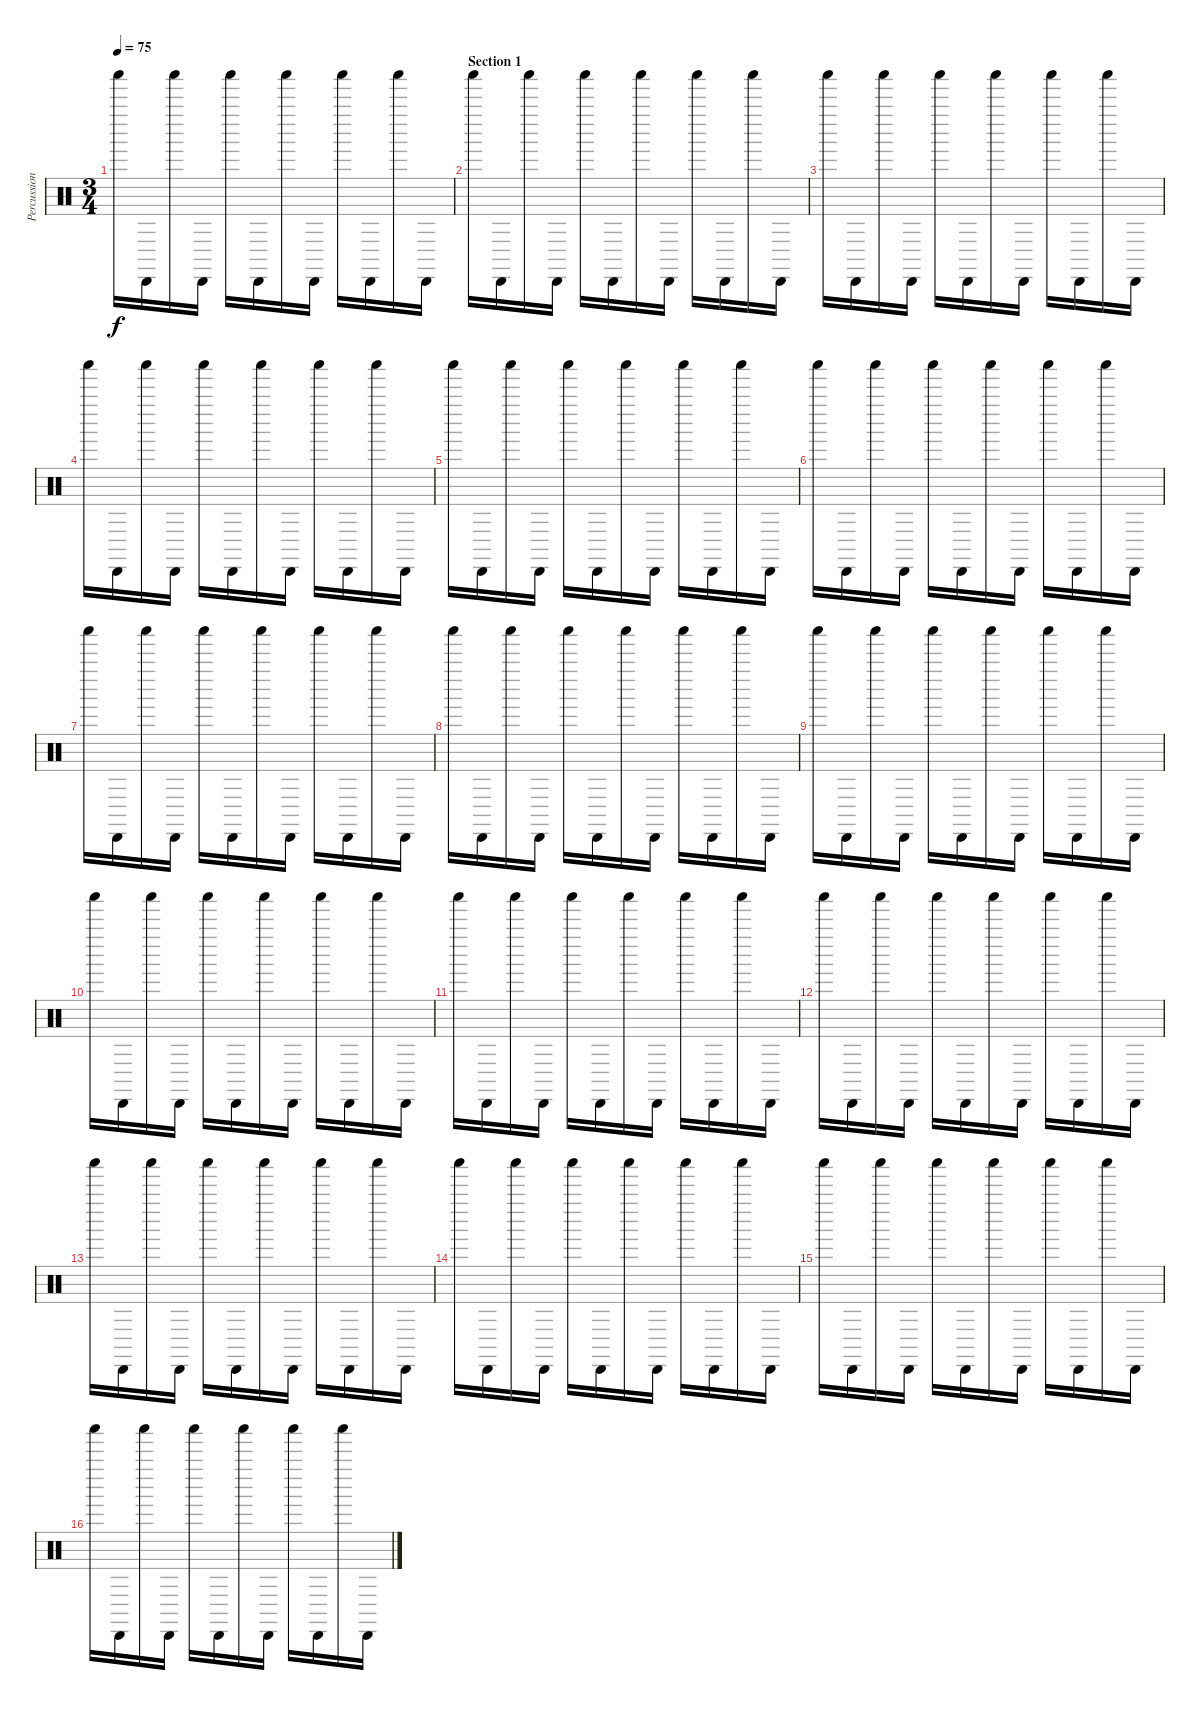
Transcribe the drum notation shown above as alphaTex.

\track ("Percussions" "Percussion") {instrument percussion}
\staff {score}
\articulation defaults
\ts (3 4)
\tempo 75
\clef neutral
\ks c "Shaker (hit)".16{dy f} "Cabasa (hit)".16 "Shaker (hit)".16 "Cabasa (hit)".16 "Shaker (hit)".16 "Cabasa (hit)".16 "Shaker (hit)".16 "Cabasa (hit)".16 "Shaker (hit)".16 "Cabasa (hit)".16 "Shaker (hit)".16 "Cabasa (hit)".16
|
\section ("" "Section 1")
"Shaker (hit)".16 "Cabasa (hit)".16 "Shaker (hit)".16 "Cabasa (hit)".16 "Shaker (hit)".16 "Cabasa (hit)".16 "Shaker (hit)".16 "Cabasa (hit)".16 "Shaker (hit)".16 "Cabasa (hit)".16 "Shaker (hit)".16 "Cabasa (hit)".16 |
"Shaker (hit)".16 "Cabasa (hit)".16 "Shaker (hit)".16 "Cabasa (hit)".16 "Shaker (hit)".16 "Cabasa (hit)".16 "Shaker (hit)".16 "Cabasa (hit)".16 "Shaker (hit)".16 "Cabasa (hit)".16 "Shaker (hit)".16 "Cabasa (hit)".16 |
"Shaker (hit)".16 "Cabasa (hit)".16 "Shaker (hit)".16 "Cabasa (hit)".16 "Shaker (hit)".16 "Cabasa (hit)".16 "Shaker (hit)".16 "Cabasa (hit)".16 "Shaker (hit)".16 "Cabasa (hit)".16 "Shaker (hit)".16 "Cabasa (hit)".16 |
"Shaker (hit)".16 "Cabasa (hit)".16 "Shaker (hit)".16 "Cabasa (hit)".16 "Shaker (hit)".16 "Cabasa (hit)".16 "Shaker (hit)".16 "Cabasa (hit)".16 "Shaker (hit)".16 "Cabasa (hit)".16 "Shaker (hit)".16 "Cabasa (hit)".16 |
"Shaker (hit)".16 "Cabasa (hit)".16 "Shaker (hit)".16 "Cabasa (hit)".16 "Shaker (hit)".16 "Cabasa (hit)".16 "Shaker (hit)".16 "Cabasa (hit)".16 "Shaker (hit)".16 "Cabasa (hit)".16 "Shaker (hit)".16 "Cabasa (hit)".16 |
"Shaker (hit)".16 "Cabasa (hit)".16 "Shaker (hit)".16 "Cabasa (hit)".16 "Shaker (hit)".16 "Cabasa (hit)".16 "Shaker (hit)".16 "Cabasa (hit)".16 "Shaker (hit)".16 "Cabasa (hit)".16 "Shaker (hit)".16 "Cabasa (hit)".16 |
"Shaker (hit)".16 "Cabasa (hit)".16 "Shaker (hit)".16 "Cabasa (hit)".16 "Shaker (hit)".16 "Cabasa (hit)".16 "Shaker (hit)".16 "Cabasa (hit)".16 "Shaker (hit)".16 "Cabasa (hit)".16 "Shaker (hit)".16 "Cabasa (hit)".16 |
"Shaker (hit)".16 "Cabasa (hit)".16 "Shaker (hit)".16 "Cabasa (hit)".16 "Shaker (hit)".16 "Cabasa (hit)".16 "Shaker (hit)".16 "Cabasa (hit)".16 "Shaker (hit)".16 "Cabasa (hit)".16 "Shaker (hit)".16 "Cabasa (hit)".16 |
"Shaker (hit)".16 "Cabasa (hit)".16 "Shaker (hit)".16 "Cabasa (hit)".16 "Shaker (hit)".16 "Cabasa (hit)".16 "Shaker (hit)".16 "Cabasa (hit)".16 "Shaker (hit)".16 "Cabasa (hit)".16 "Shaker (hit)".16 "Cabasa (hit)".16 |
"Shaker (hit)".16 "Cabasa (hit)".16 "Shaker (hit)".16 "Cabasa (hit)".16 "Shaker (hit)".16 "Cabasa (hit)".16 "Shaker (hit)".16 "Cabasa (hit)".16 "Shaker (hit)".16 "Cabasa (hit)".16 "Shaker (hit)".16 "Cabasa (hit)".16 |
"Shaker (hit)".16 "Cabasa (hit)".16 "Shaker (hit)".16 "Cabasa (hit)".16 "Shaker (hit)".16 "Cabasa (hit)".16 "Shaker (hit)".16 "Cabasa (hit)".16 "Shaker (hit)".16 "Cabasa (hit)".16 "Shaker (hit)".16 "Cabasa (hit)".16 |
"Shaker (hit)".16 "Cabasa (hit)".16 "Shaker (hit)".16 "Cabasa (hit)".16 "Shaker (hit)".16 "Cabasa (hit)".16 "Shaker (hit)".16 "Cabasa (hit)".16 "Shaker (hit)".16 "Cabasa (hit)".16 "Shaker (hit)".16 "Cabasa (hit)".16 |
"Shaker (hit)".16 "Cabasa (hit)".16 "Shaker (hit)".16 "Cabasa (hit)".16 "Shaker (hit)".16 "Cabasa (hit)".16 "Shaker (hit)".16 "Cabasa (hit)".16 "Shaker (hit)".16 "Cabasa (hit)".16 "Shaker (hit)".16 "Cabasa (hit)".16 |
"Shaker (hit)".16 "Cabasa (hit)".16 "Shaker (hit)".16 "Cabasa (hit)".16 "Shaker (hit)".16 "Cabasa (hit)".16 "Shaker (hit)".16 "Cabasa (hit)".16 "Shaker (hit)".16 "Cabasa (hit)".16 "Shaker (hit)".16 "Cabasa (hit)".16 |
"Shaker (hit)".16 "Cabasa (hit)".16 "Shaker (hit)".16 "Cabasa (hit)".16 "Shaker (hit)".16 "Cabasa (hit)".16 "Shaker (hit)".16 "Cabasa (hit)".16 "Shaker (hit)".16 "Cabasa (hit)".16 "Shaker (hit)".16 "Cabasa (hit)".16
